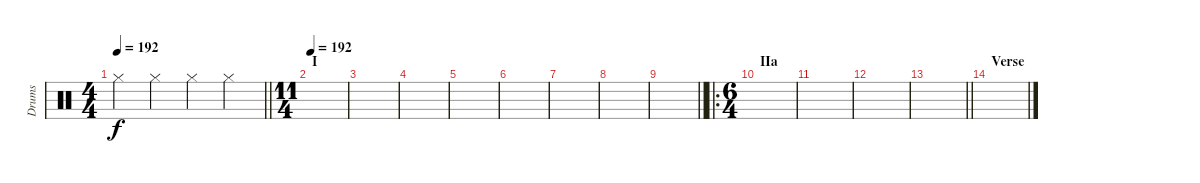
\track ("Drums" "Drums") {instrument percussion}
\staff {score}
\articulation defaults
\ts (4 4)
\tempo 192
\clef neutral
\barLineRight lightlight
\ks c "Hi-Hat (closed)".4{dy f} "Hi-Hat (closed)".4 "Hi-Hat (closed)".4 "Hi-Hat (closed)".4
|
\ts (11 4)
\section ("" "I     ")
\tempo 192
|
|
|
|
|
|
|
\barLineRight lightlight
|
\ro
\ts (6 4)
\section ("" "IIa")
|
|
|
\barLineRight lightlight
|
\section ("" "Verse")
